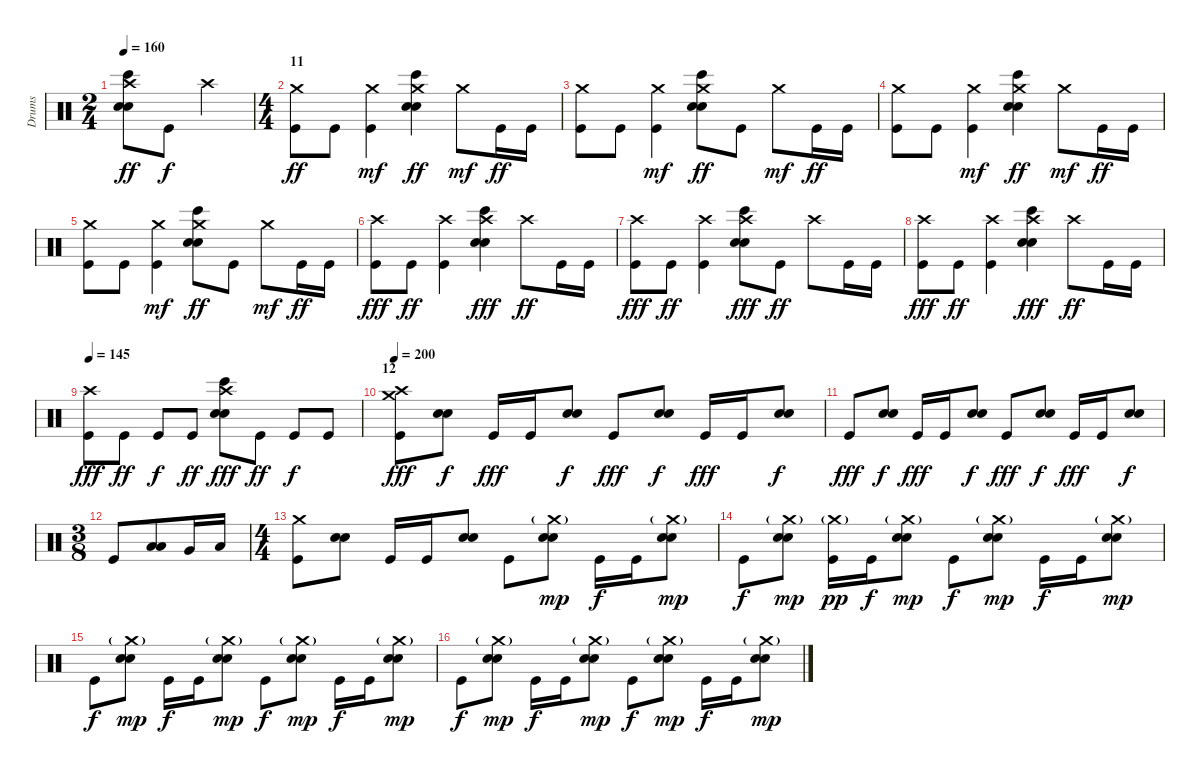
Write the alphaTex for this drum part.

\track ("Drums" "Drums") {instrument percussion}
\staff {score}
\articulation defaults
\ts (2 4)
\tempo 160
\clef neutral
\ks c
("Electric Snare (hit)" "Electric Snare (hit)" "Bongo High (hit)" "Crash high (hit)").8{dy ff} "Kick (hit)".8{dy f} "Crash high (hit)".4 |
\ts (4 4)
\section ("" "11")
("Kick (hit)" "Crash medium (hit)").8{dy ff} "Kick (hit)".8 ("Kick (hit)" "Crash medium (hit)").4{dy mf} ("Electric Snare (hit)" "Electric Snare (hit)" "Bongo High (hit)" "Crash medium (hit)").4{dy ff} "Crash medium (hit)".8{dy mf} "Kick (hit)".16{dy ff} "Kick (hit)".16 |
("Kick (hit)" "Crash medium (hit)").8 "Kick (hit)".8 ("Kick (hit)" "Crash medium (hit)").4{dy mf} ("Electric Snare (hit)" "Electric Snare (hit)" "Bongo High (hit)" "Crash medium (hit)").8{dy ff} "Kick (hit)".8 "Crash medium (hit)".8{dy mf} "Kick (hit)".16{dy ff} "Kick (hit)".16 |
("Kick (hit)" "Crash medium (hit)").8 "Kick (hit)".8 ("Kick (hit)" "Crash medium (hit)").4{dy mf} ("Electric Snare (hit)" "Electric Snare (hit)" "Bongo High (hit)" "Crash medium (hit)").4{dy ff} "Crash medium (hit)".8{dy mf} "Kick (hit)".16{dy ff} "Kick (hit)".16 |
("Kick (hit)" "Crash medium (hit)").8 "Kick (hit)".8 ("Kick (hit)" "Crash medium (hit)").4{dy mf} ("Electric Snare (hit)" "Electric Snare (hit)" "Bongo High (hit)" "Crash medium (hit)").8{dy ff} "Kick (hit)".8 "Crash medium (hit)".8{dy mf} "Kick (hit)".16{dy ff} "Kick (hit)".16 |
("Kick (hit)" "Crash high (hit)").8{dy fff} "Kick (hit)".8{dy ff} ("Kick (hit)" "Crash high (hit)").4 ("Electric Snare (hit)" "Electric Snare (hit)" "Bongo High (hit)" "Crash high (hit)").4{dy fff} "Crash high (hit)".8{dy ff} "Kick (hit)".16 "Kick (hit)".16 |
("Kick (hit)" "Crash high (hit)").8{dy fff} "Kick (hit)".8{dy ff} ("Kick (hit)" "Crash high (hit)").4 ("Electric Snare (hit)" "Electric Snare (hit)" "Bongo High (hit)" "Crash high (hit)").8{dy fff} "Kick (hit)".8{dy ff} "Crash high (hit)".8 "Kick (hit)".16 "Kick (hit)".16 |
("Kick (hit)" "Crash high (hit)").8{dy fff} "Kick (hit)".8{dy ff} ("Kick (hit)" "Crash high (hit)").4 ("Electric Snare (hit)" "Electric Snare (hit)" "Bongo High (hit)" "Crash high (hit)").4{dy fff} "Crash high (hit)".8{dy ff} "Kick (hit)".16 "Kick (hit)".16 |
\tempo 145
("Kick (hit)" "Crash high (hit)").8{dy fff} "Kick (hit)".8{dy ff} "Kick (hit)".8{dy f} "Kick (hit)".8{dy ff} ("Electric Snare (hit)" "Electric Snare (hit)" "Bongo High (hit)" "Crash high (hit)").8{dy fff} "Kick (hit)".8{dy ff} "Kick (hit)".8{dy f} "Kick (hit)".8 |
\section ("" "12")
\tempo 200
("Kick (hit)" "Crash high (hit)" "Crash medium (hit)").8{dy fff} ("Electric Snare (hit)" "Electric Snare (hit)").8{dy f} "Kick (hit)".16{dy fff} "Kick (hit)".16 ("Electric Snare (hit)" "Electric Snare (hit)").8{dy f} "Kick (hit)".8{dy fff} ("Electric Snare (hit)" "Electric Snare (hit)").8{dy f} "Kick (hit)".16{dy fff} "Kick (hit)".16 ("Electric Snare (hit)" "Electric Snare (hit)").8{dy f} |
"Kick (hit)".8{dy fff} ("Electric Snare (hit)" "Electric Snare (hit)").8{dy f} "Kick (hit)".16{dy fff} "Kick (hit)".16 ("Electric Snare (hit)" "Electric Snare (hit)").8{dy f} "Kick (hit)".8{dy fff} ("Electric Snare (hit)" "Electric Snare (hit)").8{dy f} "Kick (hit)".16{dy fff} "Kick (hit)".16 ("Electric Snare (hit)" "Electric Snare (hit)").8{dy f} |
\ts (3 8)
"Kick (hit)".8 ("Low Tom (hit)" "Low Tom (hit)").8 "Very Low Tom (hit)".16 "Low Floor Tom (hit)".16 |
\ts (4 4)
("Kick (hit)" "Crash medium (hit)").8 ("Electric Snare (hit)" "Electric Snare (hit)").8 "Kick (hit)".16 "Kick (hit)".16 ("Electric Snare (hit)" "Electric Snare (hit)").8 "Kick (hit)".8 ("Electric Snare (hit)" "Electric Snare (hit)" "Crash medium (hit)"{g}).8{dy mp} "Kick (hit)".16{dy f} "Kick (hit)".16 ("Electric Snare (hit)" "Electric Snare (hit)" "Crash medium (hit)"{g}).8{dy mp} |
"Kick (hit)".8{dy f} ("Electric Snare (hit)" "Electric Snare (hit)" "Crash medium (hit)"{g}).8{dy mp} ("Kick (hit)" "Crash medium (hit)"{g}).16{dy pp} "Kick (hit)".16{dy f} ("Electric Snare (hit)" "Electric Snare (hit)" "Crash medium (hit)"{g}).8{dy mp} "Kick (hit)".8{dy f} ("Electric Snare (hit)" "Electric Snare (hit)" "Crash medium (hit)"{g}).8{dy mp} "Kick (hit)".16{dy f} "Kick (hit)".16 ("Electric Snare (hit)" "Electric Snare (hit)" "Crash medium (hit)"{g}).8{dy mp} |
"Kick (hit)".8{dy f} ("Electric Snare (hit)" "Electric Snare (hit)" "Crash medium (hit)"{g}).8{dy mp} "Kick (hit)".16{dy f} "Kick (hit)".16 ("Electric Snare (hit)" "Electric Snare (hit)" "Crash medium (hit)"{g}).8{dy mp} "Kick (hit)".8{dy f} ("Electric Snare (hit)" "Electric Snare (hit)" "Crash medium (hit)"{g}).8{dy mp} "Kick (hit)".16{dy f} "Kick (hit)".16 ("Electric Snare (hit)" "Electric Snare (hit)" "Crash medium (hit)"{g}).8{dy mp} |
"Kick (hit)".8{dy f} ("Electric Snare (hit)" "Electric Snare (hit)" "Crash medium (hit)"{g}).8{dy mp} "Kick (hit)".16{dy f} "Kick (hit)".16 ("Electric Snare (hit)" "Electric Snare (hit)" "Crash medium (hit)"{g}).8{dy mp} "Kick (hit)".8{dy f} ("Electric Snare (hit)" "Electric Snare (hit)" "Crash medium (hit)"{g}).8{dy mp} "Kick (hit)".16{dy f} "Kick (hit)".16 ("Electric Snare (hit)" "Electric Snare (hit)" "Crash medium (hit)"{g}).8{dy mp}
